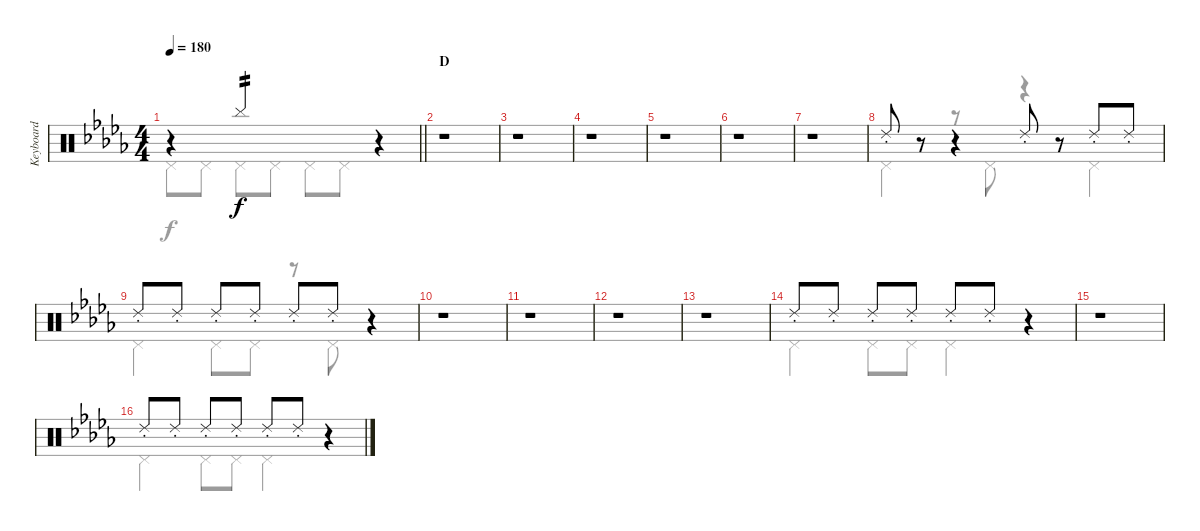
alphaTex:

\track ("Keyboard" "Keyboard") {instrument percussion}
\staff {score}
\articulation defaults
\voice
\ts (4 4)
\tempo 180
\clef neutral
\barLineRight lightlight
\ks db
r.4{dy f} "Cymbal (hit)".2{tp 2} r.4 |
\section ("" "D")
r.1 |
r.1 |
r.1 |
r.1 |
r.1 |
r.1 |
"Ride (choke) 2".8 r.8 r.4 "Ride (choke) 2".8 r.8 "Ride (choke) 2".8 "Ride (choke) 2".8 |
"Ride (choke) 2".8 "Ride (choke) 2".8 "Ride (choke) 2".8 "Ride (choke) 2".8 "Ride (choke) 2".8 "Ride (choke) 2".8 r.4 |
r.1 |
r.1 |
r.1 |
r.1 |
"Ride (choke) 2".8 "Ride (choke) 2".8 "Ride (choke) 2".8 "Ride (choke) 2".8 "Ride (choke) 2".8 "Ride (choke) 2".8 r.4 |
r.1 |
"Ride (choke) 2".8 "Ride (choke) 2".8 "Ride (choke) 2".8 "Ride (choke) 2".8 "Ride (choke) 2".8 "Ride (choke) 2".8 r.4
\voice
\clef neutral
\ottava regular
\simile none
\barLineRight lightlight
\ks db "Pedal Hi-Hat (hit)".8{dy f} "Pedal Hi-Hat (hit)".8 "Pedal Hi-Hat (hit)".8 "Pedal Hi-Hat (hit)".8 "Pedal Hi-Hat (hit)".8 "Pedal Hi-Hat (hit)".8
r.4 |
|
|
|
|
|
|
"Pedal Hi-Hat (hit)".4 r.8 "Pedal Hi-Hat (hit)".8 r.4 "Pedal Hi-Hat (hit)".4 |
"Pedal Hi-Hat (hit)".4 "Pedal Hi-Hat (hit)".8 "Pedal Hi-Hat (hit)".8 r.8 "Pedal Hi-Hat (hit)".8 r.4 |
|
|
|
|
"Pedal Hi-Hat (hit)".4 "Pedal Hi-Hat (hit)".8 "Pedal Hi-Hat (hit)".8 "Pedal Hi-Hat (hit)".4 r.4 |
|
"Pedal Hi-Hat (hit)".4 "Pedal Hi-Hat (hit)".8 "Pedal Hi-Hat (hit)".8 "Pedal Hi-Hat (hit)".4 r.4
